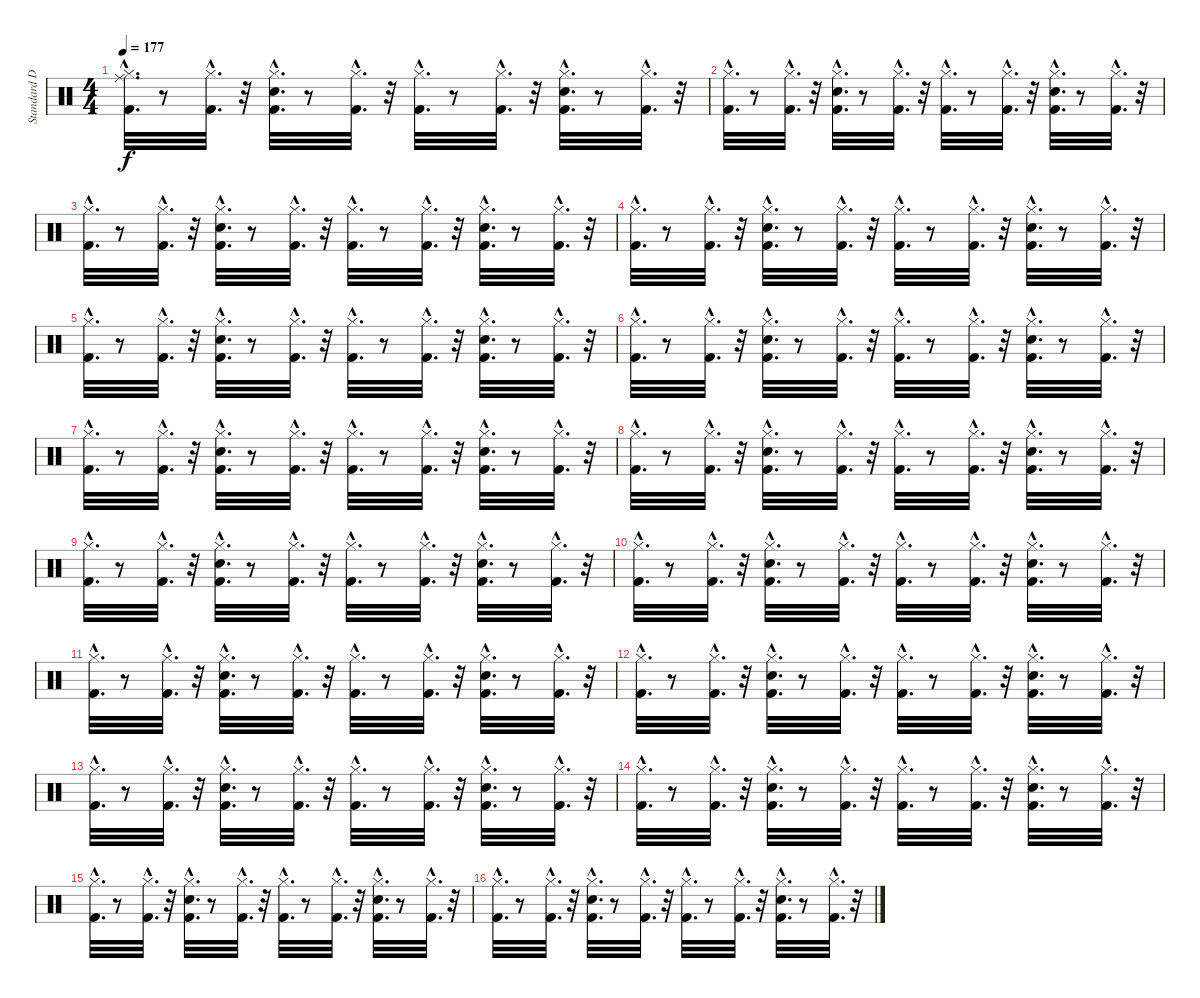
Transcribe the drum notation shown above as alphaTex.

\track ("Standard Drums" "Standard D") {instrument percussion}
\staff {score}
\articulation defaults
\ts (4 4)
\tempo 177
\clef neutral
\ks c
("Kick (hit) 2"{hac} "Hi-Hat (closed)"{hac} "Ride (middle)"{hac}).32{d dy f} r.8 ("Kick (hit) 2"{hac} "Hi-Hat (closed)"{hac}).32{d} r.32 ("Kick (hit) 2"{hac} "Snare (hit) 2"{hac} "Hi-Hat (closed)"{hac}).32{d} r.8 ("Kick (hit) 2"{hac} "Hi-Hat (closed)"{hac}).32{d} r.32 ("Kick (hit) 2"{hac} "Hi-Hat (closed)"{hac}).32{d} r.8 ("Kick (hit) 2"{hac} "Hi-Hat (closed)"{hac}).32{d} r.32 ("Kick (hit) 2"{hac} "Snare (hit) 2"{hac} "Hi-Hat (closed)"{hac}).32{d} r.8 ("Kick (hit) 2"{hac} "Hi-Hat (closed)"{hac}).32{d} r.32 |
("Kick (hit) 2"{hac} "Hi-Hat (closed)"{hac}).32{d} r.8 ("Kick (hit) 2"{hac} "Hi-Hat (closed)"{hac}).32{d} r.32 ("Kick (hit) 2"{hac} "Snare (hit) 2"{hac} "Hi-Hat (closed)"{hac}).32{d} r.8 ("Kick (hit) 2"{hac} "Hi-Hat (closed)"{hac}).32{d} r.32 ("Kick (hit) 2"{hac} "Hi-Hat (closed)"{hac}).32{d} r.8 ("Kick (hit) 2"{hac} "Hi-Hat (closed)"{hac}).32{d} r.32 ("Kick (hit) 2"{hac} "Snare (hit) 2"{hac} "Hi-Hat (closed)"{hac}).32{d} r.8 ("Kick (hit) 2"{hac} "Hi-Hat (closed)"{hac}).32{d} r.32 |
("Kick (hit) 2"{hac} "Hi-Hat (closed)"{hac}).32{d} r.8 ("Kick (hit) 2"{hac} "Hi-Hat (closed)"{hac}).32{d} r.32 ("Kick (hit) 2"{hac} "Snare (hit) 2"{hac} "Hi-Hat (closed)"{hac}).32{d} r.8 ("Kick (hit) 2"{hac} "Hi-Hat (closed)"{hac}).32{d} r.32 ("Kick (hit) 2"{hac} "Hi-Hat (closed)"{hac}).32{d} r.8 ("Kick (hit) 2"{hac} "Hi-Hat (closed)"{hac}).32{d} r.32 ("Kick (hit) 2"{hac} "Snare (hit) 2"{hac} "Hi-Hat (closed)"{hac}).32{d} r.8 ("Kick (hit) 2"{hac} "Hi-Hat (closed)"{hac}).32{d} r.32 |
("Kick (hit) 2"{hac} "Hi-Hat (closed)"{hac}).32{d} r.8 ("Kick (hit) 2"{hac} "Hi-Hat (closed)"{hac}).32{d} r.32 ("Kick (hit) 2"{hac} "Snare (hit) 2"{hac} "Hi-Hat (closed)"{hac}).32{d} r.8 ("Kick (hit) 2"{hac} "Hi-Hat (closed)"{hac}).32{d} r.32 ("Kick (hit) 2"{hac} "Hi-Hat (closed)"{hac}).32{d} r.8 ("Kick (hit) 2"{hac} "Hi-Hat (closed)"{hac}).32{d} r.32 ("Kick (hit) 2"{hac} "Snare (hit) 2"{hac} "Hi-Hat (closed)"{hac}).32{d} r.8 ("Kick (hit) 2"{hac} "Hi-Hat (closed)"{hac}).32{d} r.32 |
("Kick (hit) 2"{hac} "Hi-Hat (closed)"{hac}).32{d} r.8 ("Kick (hit) 2"{hac} "Hi-Hat (closed)"{hac}).32{d} r.32 ("Kick (hit) 2"{hac} "Snare (hit) 2"{hac} "Hi-Hat (closed)"{hac}).32{d} r.8 ("Kick (hit) 2"{hac} "Hi-Hat (closed)"{hac}).32{d} r.32 ("Kick (hit) 2"{hac} "Hi-Hat (closed)"{hac}).32{d} r.8 ("Kick (hit) 2"{hac} "Hi-Hat (closed)"{hac}).32{d} r.32 ("Kick (hit) 2"{hac} "Snare (hit) 2"{hac} "Hi-Hat (closed)"{hac}).32{d} r.8 ("Kick (hit) 2"{hac} "Hi-Hat (closed)"{hac}).32{d} r.32 |
("Kick (hit) 2"{hac} "Hi-Hat (closed)"{hac}).32{d} r.8 ("Kick (hit) 2"{hac} "Hi-Hat (closed)"{hac}).32{d} r.32 ("Kick (hit) 2"{hac} "Snare (hit) 2"{hac} "Hi-Hat (closed)"{hac}).32{d} r.8 ("Kick (hit) 2"{hac} "Hi-Hat (closed)"{hac}).32{d} r.32 ("Kick (hit) 2"{hac} "Hi-Hat (closed)"{hac}).32{d} r.8 ("Kick (hit) 2"{hac} "Hi-Hat (closed)"{hac}).32{d} r.32 ("Kick (hit) 2"{hac} "Snare (hit) 2"{hac} "Hi-Hat (closed)"{hac}).32{d} r.8 ("Kick (hit) 2"{hac} "Hi-Hat (closed)"{hac}).32{d} r.32 |
("Kick (hit) 2"{hac} "Hi-Hat (closed)"{hac}).32{d} r.8 ("Kick (hit) 2"{hac} "Hi-Hat (closed)"{hac}).32{d} r.32 ("Kick (hit) 2"{hac} "Snare (hit) 2"{hac} "Hi-Hat (closed)"{hac}).32{d} r.8 ("Kick (hit) 2"{hac} "Hi-Hat (closed)"{hac}).32{d} r.32 ("Kick (hit) 2"{hac} "Hi-Hat (closed)"{hac}).32{d} r.8 ("Kick (hit) 2"{hac} "Hi-Hat (closed)"{hac}).32{d} r.32 ("Kick (hit) 2"{hac} "Snare (hit) 2"{hac} "Hi-Hat (closed)"{hac}).32{d} r.8 ("Kick (hit) 2"{hac} "Hi-Hat (closed)"{hac}).32{d} r.32 |
("Kick (hit) 2"{hac} "Hi-Hat (closed)"{hac}).32{d} r.8 ("Kick (hit) 2"{hac} "Hi-Hat (closed)"{hac}).32{d} r.32 ("Kick (hit) 2"{hac} "Snare (hit) 2"{hac} "Hi-Hat (closed)"{hac}).32{d} r.8 ("Kick (hit) 2"{hac} "Hi-Hat (closed)"{hac}).32{d} r.32 ("Kick (hit) 2"{hac} "Hi-Hat (closed)"{hac}).32{d} r.8 ("Kick (hit) 2"{hac} "Hi-Hat (closed)"{hac}).32{d} r.32 ("Kick (hit) 2"{hac} "Snare (hit) 2"{hac} "Hi-Hat (closed)"{hac}).32{d} r.8 ("Kick (hit) 2"{hac} "Hi-Hat (closed)"{hac}).32{d} r.32 |
("Kick (hit) 2"{hac} "Hi-Hat (closed)"{hac}).32{d} r.8 ("Kick (hit) 2"{hac} "Hi-Hat (closed)"{hac}).32{d} r.32 ("Kick (hit) 2"{hac} "Snare (hit) 2"{hac} "Hi-Hat (closed)"{hac}).32{d} r.8 ("Kick (hit) 2"{hac} "Hi-Hat (closed)"{hac}).32{d} r.32 ("Kick (hit) 2"{hac} "Hi-Hat (closed)"{hac}).32{d} r.8 ("Kick (hit) 2"{hac} "Hi-Hat (closed)"{hac}).32{d} r.32 ("Kick (hit) 2"{hac} "Snare (hit) 2"{hac} "Hi-Hat (closed)"{hac}).32{d} r.8 ("Kick (hit) 2"{hac} "Hi-Hat (closed)"{hac}).32{d} r.32 |
("Kick (hit) 2"{hac} "Hi-Hat (closed)"{hac}).32{d} r.8 ("Kick (hit) 2"{hac} "Hi-Hat (closed)"{hac}).32{d} r.32 ("Kick (hit) 2"{hac} "Snare (hit) 2"{hac} "Hi-Hat (closed)"{hac}).32{d} r.8 ("Kick (hit) 2"{hac} "Hi-Hat (closed)"{hac}).32{d} r.32 ("Kick (hit) 2"{hac} "Hi-Hat (closed)"{hac}).32{d} r.8 ("Kick (hit) 2"{hac} "Hi-Hat (closed)"{hac}).32{d} r.32 ("Kick (hit) 2"{hac} "Snare (hit) 2"{hac} "Hi-Hat (closed)"{hac}).32{d} r.8 ("Kick (hit) 2"{hac} "Hi-Hat (closed)"{hac}).32{d} r.32 |
("Kick (hit) 2"{hac} "Hi-Hat (closed)"{hac}).32{d} r.8 ("Kick (hit) 2"{hac} "Hi-Hat (closed)"{hac}).32{d} r.32 ("Kick (hit) 2"{hac} "Snare (hit) 2"{hac} "Hi-Hat (closed)"{hac}).32{d} r.8 ("Kick (hit) 2"{hac} "Hi-Hat (closed)"{hac}).32{d} r.32 ("Kick (hit) 2"{hac} "Hi-Hat (closed)"{hac}).32{d} r.8 ("Kick (hit) 2"{hac} "Hi-Hat (closed)"{hac}).32{d} r.32 ("Kick (hit) 2"{hac} "Snare (hit) 2"{hac} "Hi-Hat (closed)"{hac}).32{d} r.8 ("Kick (hit) 2"{hac} "Hi-Hat (closed)"{hac}).32{d} r.32 |
("Kick (hit) 2"{hac} "Hi-Hat (closed)"{hac}).32{d} r.8 ("Kick (hit) 2"{hac} "Hi-Hat (closed)"{hac}).32{d} r.32 ("Kick (hit) 2"{hac} "Snare (hit) 2"{hac} "Hi-Hat (closed)"{hac}).32{d} r.8 ("Kick (hit) 2"{hac} "Hi-Hat (closed)"{hac}).32{d} r.32 ("Kick (hit) 2"{hac} "Hi-Hat (closed)"{hac}).32{d} r.8 ("Kick (hit) 2"{hac} "Hi-Hat (closed)"{hac}).32{d} r.32 ("Kick (hit) 2"{hac} "Snare (hit) 2"{hac} "Hi-Hat (closed)"{hac}).32{d} r.8 ("Kick (hit) 2"{hac} "Hi-Hat (closed)"{hac}).32{d} r.32 |
("Kick (hit) 2"{hac} "Hi-Hat (closed)"{hac}).32{d} r.8 ("Kick (hit) 2"{hac} "Hi-Hat (closed)"{hac}).32{d} r.32 ("Kick (hit) 2"{hac} "Snare (hit) 2"{hac} "Hi-Hat (closed)"{hac}).32{d} r.8 ("Kick (hit) 2"{hac} "Hi-Hat (closed)"{hac}).32{d} r.32 ("Kick (hit) 2"{hac} "Hi-Hat (closed)"{hac}).32{d} r.8 ("Kick (hit) 2"{hac} "Hi-Hat (closed)"{hac}).32{d} r.32 ("Kick (hit) 2"{hac} "Snare (hit) 2"{hac} "Hi-Hat (closed)"{hac}).32{d} r.8 ("Kick (hit) 2"{hac} "Hi-Hat (closed)"{hac}).32{d} r.32 |
("Kick (hit) 2"{hac} "Hi-Hat (closed)"{hac}).32{d} r.8 ("Kick (hit) 2"{hac} "Hi-Hat (closed)"{hac}).32{d} r.32 ("Kick (hit) 2"{hac} "Snare (hit) 2"{hac} "Hi-Hat (closed)"{hac}).32{d} r.8 ("Kick (hit) 2"{hac} "Hi-Hat (closed)"{hac}).32{d} r.32 ("Kick (hit) 2"{hac} "Hi-Hat (closed)"{hac}).32{d} r.8 ("Kick (hit) 2"{hac} "Hi-Hat (closed)"{hac}).32{d} r.32 ("Kick (hit) 2"{hac} "Snare (hit) 2"{hac} "Hi-Hat (closed)"{hac}).32{d} r.8 ("Kick (hit) 2"{hac} "Hi-Hat (closed)"{hac}).32{d} r.32 |
("Kick (hit) 2"{hac} "Hi-Hat (closed)"{hac}).32{d} r.8 ("Kick (hit) 2"{hac} "Hi-Hat (closed)"{hac}).32{d} r.32 ("Kick (hit) 2"{hac} "Snare (hit) 2"{hac} "Hi-Hat (closed)"{hac}).32{d} r.8 ("Kick (hit) 2"{hac} "Hi-Hat (closed)"{hac}).32{d} r.32 ("Kick (hit) 2"{hac} "Hi-Hat (closed)"{hac}).32{d} r.8 ("Kick (hit) 2"{hac} "Hi-Hat (closed)"{hac}).32{d} r.32 ("Kick (hit) 2"{hac} "Snare (hit) 2"{hac} "Hi-Hat (closed)"{hac}).32{d} r.8 ("Kick (hit) 2"{hac} "Hi-Hat (closed)"{hac}).32{d} r.32 |
("Kick (hit) 2"{hac} "Hi-Hat (closed)"{hac}).32{d} r.8 ("Kick (hit) 2"{hac} "Hi-Hat (closed)"{hac}).32{d} r.32 ("Kick (hit) 2"{hac} "Snare (hit) 2"{hac} "Hi-Hat (closed)"{hac}).32{d} r.8 ("Kick (hit) 2"{hac} "Hi-Hat (closed)"{hac}).32{d} r.32 ("Kick (hit) 2"{hac} "Hi-Hat (closed)"{hac}).32{d} r.8 ("Kick (hit) 2"{hac} "Hi-Hat (closed)"{hac}).32{d} r.32 ("Kick (hit) 2"{hac} "Snare (hit) 2"{hac} "Hi-Hat (closed)"{hac}).32{d} r.8 ("Kick (hit) 2"{hac} "Hi-Hat (closed)"{hac}).32{d} r.32
